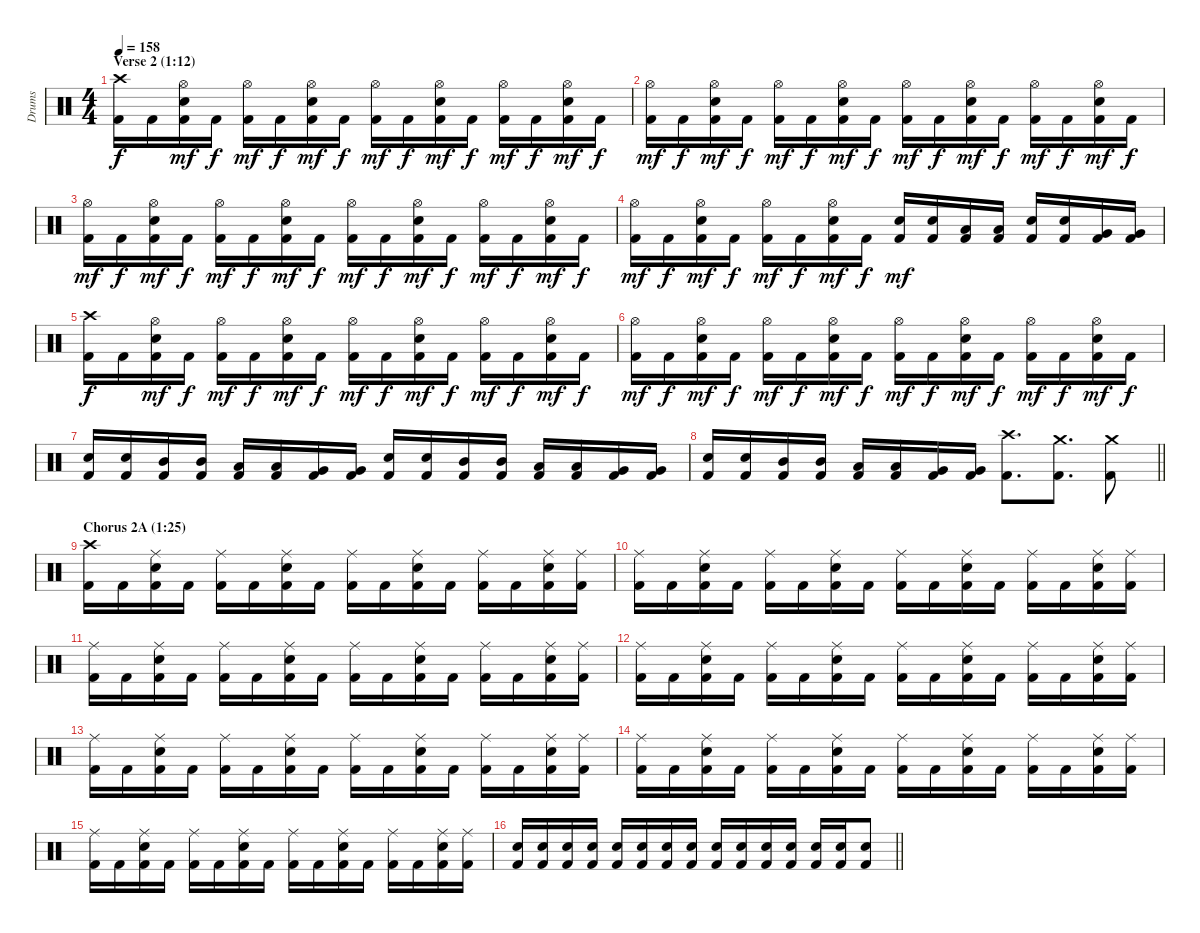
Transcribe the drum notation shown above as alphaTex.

\track ("Drums" "Drums") {instrument percussion}
\staff {score}
\articulation defaults
\ts (4 4)
\section ("" "Verse 2 (1:12)")
\tempo 158
\clef neutral
\ks c
("Crash high (hit)" "Kick (hit) 2").16{dy f} "Kick (hit) 2".16 ("Hi-Hat (open)" "Electric Snare (hit)" "Kick (hit) 2").16{dy mf} "Kick (hit) 2".16{dy f} ("Hi-Hat (open)" "Kick (hit) 2").16{dy mf} "Kick (hit) 2".16{dy f} ("Hi-Hat (open)" "Electric Snare (hit)" "Kick (hit) 2").16{dy mf} "Kick (hit) 2".16{dy f} ("Hi-Hat (open)" "Kick (hit) 2").16{dy mf} "Kick (hit) 2".16{dy f} ("Hi-Hat (open)" "Electric Snare (hit)" "Kick (hit) 2").16{dy mf} "Kick (hit) 2".16{dy f} ("Hi-Hat (open)" "Kick (hit) 2").16{dy mf} "Kick (hit) 2".16{dy f} ("Hi-Hat (open)" "Electric Snare (hit)" "Kick (hit) 2").16{dy mf} "Kick (hit) 2".16{dy f} |
("Hi-Hat (open)" "Kick (hit) 2").16{dy mf} "Kick (hit) 2".16{dy f} ("Hi-Hat (open)" "Electric Snare (hit)" "Kick (hit) 2").16{dy mf} "Kick (hit) 2".16{dy f} ("Hi-Hat (open)" "Kick (hit) 2").16{dy mf} "Kick (hit) 2".16{dy f} ("Hi-Hat (open)" "Electric Snare (hit)" "Kick (hit) 2").16{dy mf} "Kick (hit) 2".16{dy f} ("Hi-Hat (open)" "Kick (hit) 2").16{dy mf} "Kick (hit) 2".16{dy f} ("Hi-Hat (open)" "Electric Snare (hit)" "Kick (hit) 2").16{dy mf} "Kick (hit) 2".16{dy f} ("Hi-Hat (open)" "Kick (hit) 2").16{dy mf} "Kick (hit) 2".16{dy f} ("Hi-Hat (open)" "Electric Snare (hit)" "Kick (hit) 2").16{dy mf} "Kick (hit) 2".16{dy f} |
("Hi-Hat (open)" "Kick (hit) 2").16{dy mf} "Kick (hit) 2".16{dy f} ("Hi-Hat (open)" "Electric Snare (hit)" "Kick (hit) 2").16{dy mf} "Kick (hit) 2".16{dy f} ("Hi-Hat (open)" "Kick (hit) 2").16{dy mf} "Kick (hit) 2".16{dy f} ("Hi-Hat (open)" "Electric Snare (hit)" "Kick (hit) 2").16{dy mf} "Kick (hit) 2".16{dy f} ("Hi-Hat (open)" "Kick (hit) 2").16{dy mf} "Kick (hit) 2".16{dy f} ("Hi-Hat (open)" "Electric Snare (hit)" "Kick (hit) 2").16{dy mf} "Kick (hit) 2".16{dy f} ("Hi-Hat (open)" "Kick (hit) 2").16{dy mf} "Kick (hit) 2".16{dy f} ("Hi-Hat (open)" "Electric Snare (hit)" "Kick (hit) 2").16{dy mf} "Kick (hit) 2".16{dy f} |
("Hi-Hat (open)" "Kick (hit) 2").16{dy mf} "Kick (hit) 2".16{dy f} ("Hi-Hat (open)" "Electric Snare (hit)" "Kick (hit) 2").16{dy mf} "Kick (hit) 2".16{dy f} ("Hi-Hat (open)" "Kick (hit) 2").16{dy mf} "Kick (hit) 2".16{dy f} ("Hi-Hat (open)" "Electric Snare (hit)" "Kick (hit) 2").16{dy mf} "Kick (hit) 2".16{dy f} ("Electric Snare (hit)" "Kick (hit) 2").16{dy mf} ("Electric Snare (hit)" "Kick (hit) 2").16 ("Low Tom (hit)" "Kick (hit) 2").16 ("Low Tom (hit)" "Kick (hit) 2").16 ("Electric Snare (hit)" "Kick (hit) 2").16 ("Electric Snare (hit)" "Kick (hit) 2").16 ("Very Low Tom (hit)" "Kick (hit) 2").16 ("Very Low Tom (hit)" "Kick (hit) 2").16 |
("Crash high (hit)" "Kick (hit) 2").16{dy f} "Kick (hit) 2".16 ("Hi-Hat (open)" "Electric Snare (hit)" "Kick (hit) 2").16{dy mf} "Kick (hit) 2".16{dy f} ("Hi-Hat (open)" "Kick (hit) 2").16{dy mf} "Kick (hit) 2".16{dy f} ("Hi-Hat (open)" "Electric Snare (hit)" "Kick (hit) 2").16{dy mf} "Kick (hit) 2".16{dy f} ("Hi-Hat (open)" "Kick (hit) 2").16{dy mf} "Kick (hit) 2".16{dy f} ("Hi-Hat (open)" "Electric Snare (hit)" "Kick (hit) 2").16{dy mf} "Kick (hit) 2".16{dy f} ("Hi-Hat (open)" "Kick (hit) 2").16{dy mf} "Kick (hit) 2".16{dy f} ("Hi-Hat (open)" "Electric Snare (hit)" "Kick (hit) 2").16{dy mf} "Kick (hit) 2".16{dy f} |
("Hi-Hat (open)" "Kick (hit) 2").16{dy mf} "Kick (hit) 2".16{dy f} ("Hi-Hat (open)" "Electric Snare (hit)" "Kick (hit) 2").16{dy mf} "Kick (hit) 2".16{dy f} ("Hi-Hat (open)" "Kick (hit) 2").16{dy mf} "Kick (hit) 2".16{dy f} ("Hi-Hat (open)" "Electric Snare (hit)" "Kick (hit) 2").16{dy mf} "Kick (hit) 2".16{dy f} ("Hi-Hat (open)" "Kick (hit) 2").16{dy mf} "Kick (hit) 2".16{dy f} ("Hi-Hat (open)" "Electric Snare (hit)" "Kick (hit) 2").16{dy mf} "Kick (hit) 2".16{dy f} ("Hi-Hat (open)" "Kick (hit) 2").16{dy mf} "Kick (hit) 2".16{dy f} ("Hi-Hat (open)" "Electric Snare (hit)" "Kick (hit) 2").16{dy mf} "Kick (hit) 2".16{dy f} |
("Electric Snare (hit)" "Kick (hit) 2").16 ("Electric Snare (hit)" "Kick (hit) 2").16 ("Mid Tom (hit)" "Kick (hit) 2").16 ("Mid Tom (hit)" "Kick (hit) 2").16 ("Low Tom (hit)" "Kick (hit) 2").16 ("Low Tom (hit)" "Kick (hit) 2").16 ("Very Low Tom (hit)" "Kick (hit) 2").16 ("Very Low Tom (hit)" "Kick (hit) 2").16 ("Electric Snare (hit)" "Kick (hit) 2").16 ("Electric Snare (hit)" "Kick (hit) 2").16 ("Mid Tom (hit)" "Kick (hit) 2").16 ("Mid Tom (hit)" "Kick (hit) 2").16 ("Low Tom (hit)" "Kick (hit) 2").16 ("Low Tom (hit)" "Kick (hit) 2").16 ("Very Low Tom (hit)" "Kick (hit) 2").16 ("Very Low Tom (hit)" "Kick (hit) 2").16 |
\barLineRight lightlight
("Electric Snare (hit)" "Kick (hit) 2").16 ("Electric Snare (hit)" "Kick (hit) 2").16 ("Mid Tom (hit)" "Kick (hit) 2").16 ("Mid Tom (hit)" "Kick (hit) 2").16 ("Low Tom (hit)" "Kick (hit) 2").16 ("Low Tom (hit)" "Kick (hit) 2").16 ("Very Low Tom (hit)" "Kick (hit) 2").16 ("Very Low Tom (hit)" "Kick (hit) 2").16 ("Crash high (hit)" "Kick (hit) 2").8{d} ("Crash medium (hit)" "Kick (hit) 2").8{d} ("Crash medium (hit)" "Kick (hit) 2").8 |
\section ("" "Chorus 2A (1:25)")
("Crash high (hit)" "Kick (hit) 2").16 "Kick (hit) 2".16 ("Ride (middle)" "Electric Snare (hit)" "Kick (hit) 2").16 "Kick (hit) 2".16 ("Ride (middle)" "Kick (hit) 2").16 "Kick (hit) 2".16 ("Ride (middle)" "Electric Snare (hit)" "Kick (hit) 2").16 "Kick (hit) 2".16 ("Ride (middle)" "Kick (hit) 2").16 "Kick (hit) 2".16 ("Ride (middle)" "Electric Snare (hit)" "Kick (hit) 2").16 "Kick (hit) 2".16 ("Ride (middle)" "Kick (hit) 2").16 "Kick (hit) 2".16 ("Ride (middle)" "Electric Snare (hit)" "Kick (hit) 2").16 ("Ride (middle)" "Kick (hit) 2").16 |
("Ride (middle)" "Kick (hit) 2").16 "Kick (hit) 2".16 ("Ride (middle)" "Electric Snare (hit)" "Kick (hit) 2").16 "Kick (hit) 2".16 ("Ride (middle)" "Kick (hit) 2").16 "Kick (hit) 2".16 ("Ride (middle)" "Electric Snare (hit)" "Kick (hit) 2").16 "Kick (hit) 2".16 ("Ride (middle)" "Kick (hit) 2").16 "Kick (hit) 2".16 ("Ride (middle)" "Electric Snare (hit)" "Kick (hit) 2").16 "Kick (hit) 2".16 ("Ride (middle)" "Kick (hit) 2").16 "Kick (hit) 2".16 ("Ride (middle)" "Electric Snare (hit)" "Kick (hit) 2").16 ("Ride (middle)" "Kick (hit) 2").16 |
("Ride (middle)" "Kick (hit) 2").16 "Kick (hit) 2".16 ("Ride (middle)" "Electric Snare (hit)" "Kick (hit) 2").16 "Kick (hit) 2".16 ("Ride (middle)" "Kick (hit) 2").16 "Kick (hit) 2".16 ("Ride (middle)" "Electric Snare (hit)" "Kick (hit) 2").16 "Kick (hit) 2".16 ("Ride (middle)" "Kick (hit) 2").16 "Kick (hit) 2".16 ("Ride (middle)" "Electric Snare (hit)" "Kick (hit) 2").16 "Kick (hit) 2".16 ("Ride (middle)" "Kick (hit) 2").16 "Kick (hit) 2".16 ("Ride (middle)" "Electric Snare (hit)" "Kick (hit) 2").16 ("Ride (middle)" "Kick (hit) 2").16 |
("Ride (middle)" "Kick (hit) 2").16 "Kick (hit) 2".16 ("Ride (middle)" "Electric Snare (hit)" "Kick (hit) 2").16 "Kick (hit) 2".16 ("Ride (middle)" "Kick (hit) 2").16 "Kick (hit) 2".16 ("Ride (middle)" "Electric Snare (hit)" "Kick (hit) 2").16 "Kick (hit) 2".16 ("Ride (middle)" "Kick (hit) 2").16 "Kick (hit) 2".16 ("Ride (middle)" "Electric Snare (hit)" "Kick (hit) 2").16 "Kick (hit) 2".16 ("Ride (middle)" "Kick (hit) 2").16 "Kick (hit) 2".16 ("Ride (middle)" "Electric Snare (hit)" "Kick (hit) 2").16 ("Ride (middle)" "Kick (hit) 2").16 |
("Ride (middle)" "Kick (hit) 2").16 "Kick (hit) 2".16 ("Ride (middle)" "Electric Snare (hit)" "Kick (hit) 2").16 "Kick (hit) 2".16 ("Ride (middle)" "Kick (hit) 2").16 "Kick (hit) 2".16 ("Ride (middle)" "Electric Snare (hit)" "Kick (hit) 2").16 "Kick (hit) 2".16 ("Ride (middle)" "Kick (hit) 2").16 "Kick (hit) 2".16 ("Ride (middle)" "Electric Snare (hit)" "Kick (hit) 2").16 "Kick (hit) 2".16 ("Ride (middle)" "Kick (hit) 2").16 "Kick (hit) 2".16 ("Ride (middle)" "Electric Snare (hit)" "Kick (hit) 2").16 ("Ride (middle)" "Kick (hit) 2").16 |
("Ride (middle)" "Kick (hit) 2").16 "Kick (hit) 2".16 ("Ride (middle)" "Electric Snare (hit)" "Kick (hit) 2").16 "Kick (hit) 2".16 ("Ride (middle)" "Kick (hit) 2").16 "Kick (hit) 2".16 ("Ride (middle)" "Electric Snare (hit)" "Kick (hit) 2").16 "Kick (hit) 2".16 ("Ride (middle)" "Kick (hit) 2").16 "Kick (hit) 2".16 ("Ride (middle)" "Electric Snare (hit)" "Kick (hit) 2").16 "Kick (hit) 2".16 ("Ride (middle)" "Kick (hit) 2").16 "Kick (hit) 2".16 ("Ride (middle)" "Electric Snare (hit)" "Kick (hit) 2").16 ("Ride (middle)" "Kick (hit) 2").16 |
("Ride (middle)" "Kick (hit) 2").16 "Kick (hit) 2".16 ("Ride (middle)" "Electric Snare (hit)" "Kick (hit) 2").16 "Kick (hit) 2".16 ("Ride (middle)" "Kick (hit) 2").16 "Kick (hit) 2".16 ("Ride (middle)" "Electric Snare (hit)" "Kick (hit) 2").16 "Kick (hit) 2".16 ("Ride (middle)" "Kick (hit) 2").16 "Kick (hit) 2".16 ("Ride (middle)" "Electric Snare (hit)" "Kick (hit) 2").16 "Kick (hit) 2".16 ("Ride (middle)" "Kick (hit) 2").16 "Kick (hit) 2".16 ("Ride (middle)" "Electric Snare (hit)" "Kick (hit) 2").16 ("Ride (middle)" "Kick (hit) 2").16 |
\barLineRight lightlight
("Electric Snare (hit)" "Kick (hit) 2").16 ("Electric Snare (hit)" "Kick (hit) 2").16 ("Electric Snare (hit)" "Kick (hit) 2").16 ("Electric Snare (hit)" "Kick (hit) 2").16 ("Electric Snare (hit)" "Kick (hit) 2").16 ("Electric Snare (hit)" "Kick (hit) 2").16 ("Electric Snare (hit)" "Kick (hit) 2").16 ("Electric Snare (hit)" "Kick (hit) 2").16 ("Electric Snare (hit)" "Kick (hit) 2").16 ("Electric Snare (hit)" "Kick (hit) 2").16 ("Electric Snare (hit)" "Kick (hit) 2").16 ("Electric Snare (hit)" "Kick (hit) 2").16 ("Electric Snare (hit)" "Kick (hit) 2").16 ("Electric Snare (hit)" "Kick (hit) 2").16 ("Electric Snare (hit)" "Kick (hit) 2").8
